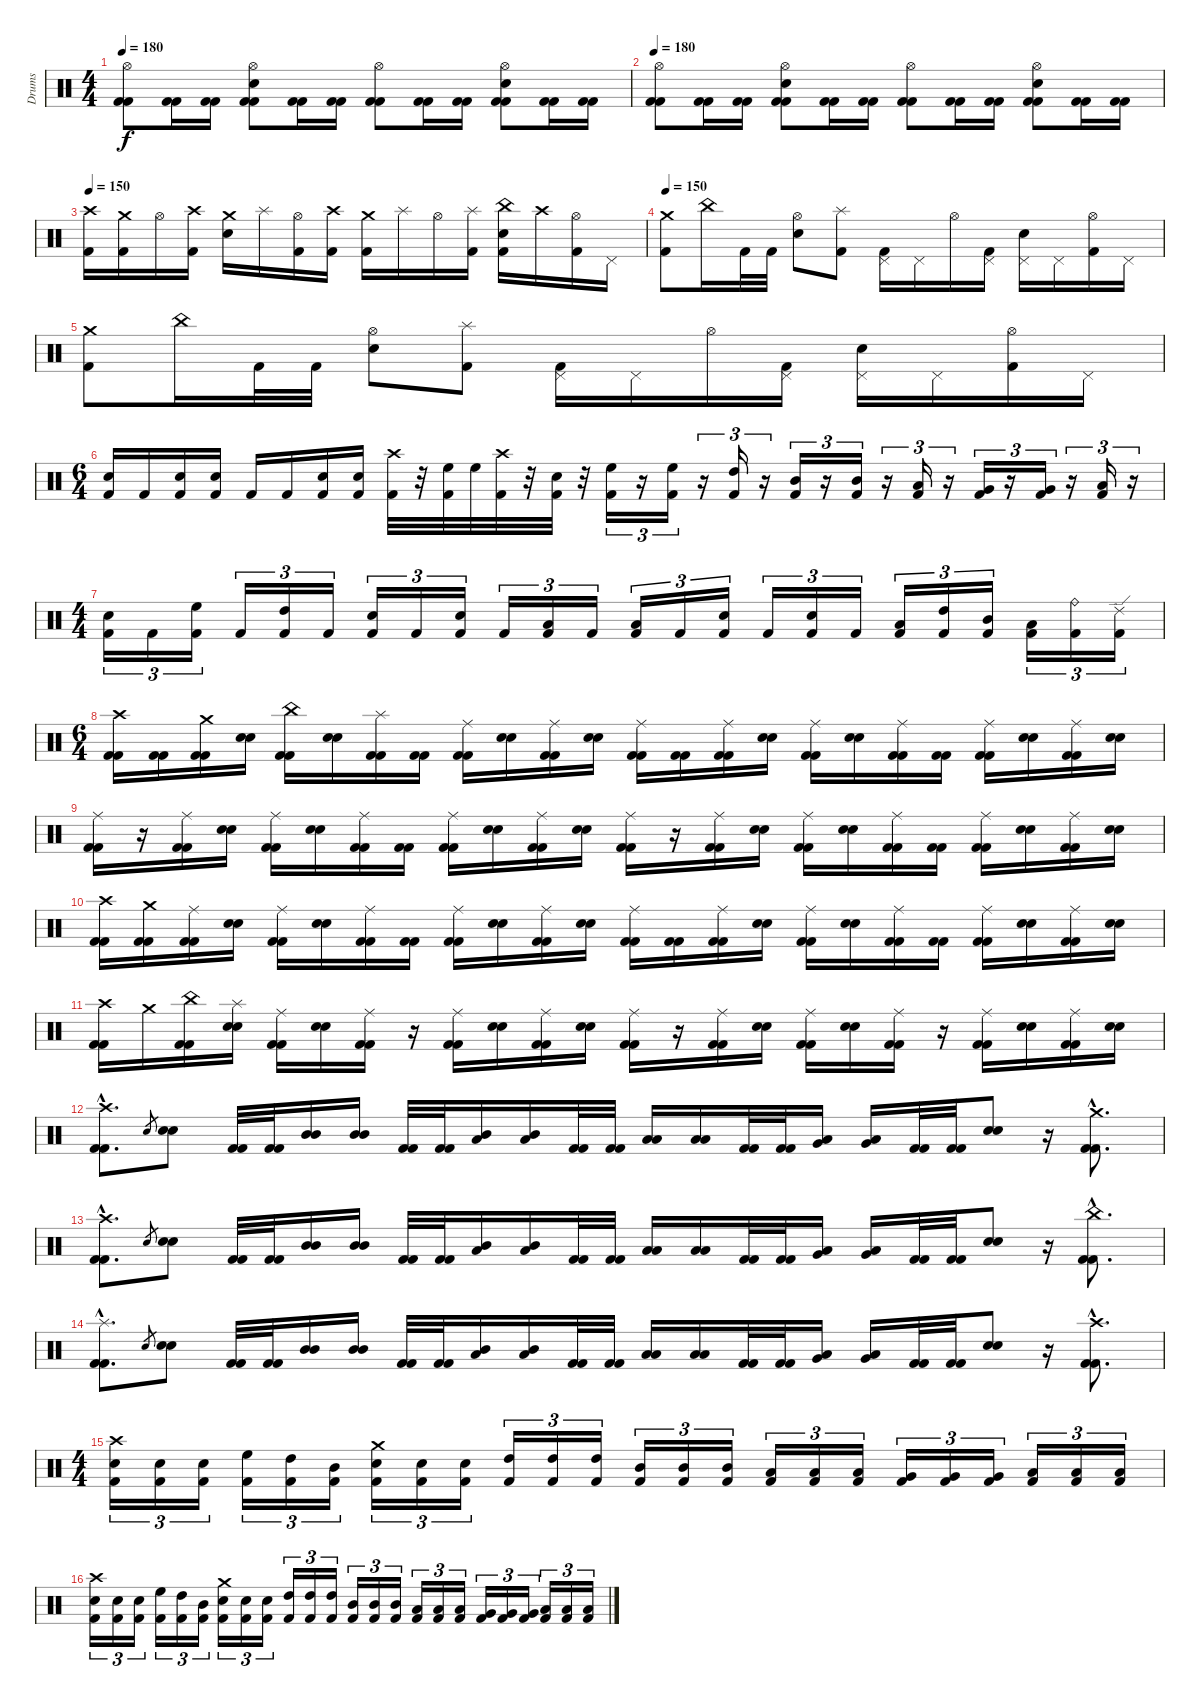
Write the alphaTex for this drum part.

\track ("Drums" "Drums") {instrument percussion}
\staff {score}
\articulation defaults
\ts (4 4)
\tempo 180
\clef neutral
\ks c
("Hi-Hat (open)" "Kick (hit) 2" "Kick (hit) 2").8{dy f} ("Kick (hit) 2" "Kick (hit) 2").16 ("Kick (hit) 2" "Kick (hit) 2").16 ("Electric Snare (hit)" "Hi-Hat (open)" "Kick (hit) 2" "Kick (hit) 2").8 ("Kick (hit) 2" "Kick (hit) 2").16 ("Kick (hit) 2" "Kick (hit) 2").16 ("Hi-Hat (open)" "Kick (hit) 2" "Kick (hit) 2").8 ("Kick (hit) 2" "Kick (hit) 2").16 ("Kick (hit) 2" "Kick (hit) 2").16 ("Electric Snare (hit)" "Hi-Hat (open)" "Kick (hit) 2" "Kick (hit) 2").8 ("Kick (hit) 2" "Kick (hit) 2").16 ("Kick (hit) 2" "Kick (hit) 2").16 |
\tempo 180
("Hi-Hat (open)" "Kick (hit) 2" "Kick (hit) 2").8 ("Kick (hit) 2" "Kick (hit) 2").16 ("Kick (hit) 2" "Kick (hit) 2").16 ("Electric Snare (hit)" "Hi-Hat (open)" "Kick (hit) 2" "Kick (hit) 2").8 ("Kick (hit) 2" "Kick (hit) 2").16 ("Kick (hit) 2" "Kick (hit) 2").16 ("Hi-Hat (open)" "Kick (hit) 2" "Kick (hit) 2").8 ("Kick (hit) 2" "Kick (hit) 2").16 ("Kick (hit) 2" "Kick (hit) 2").16 ("Electric Snare (hit)" "Hi-Hat (open)" "Kick (hit) 2" "Kick (hit) 2").8 ("Kick (hit) 2" "Kick (hit) 2").16 ("Kick (hit) 2" "Kick (hit) 2").16 |
\tempo 150
("Crash high (hit)" "Kick (hit) 2").16 ("Crash medium (hit)" "Kick (hit) 2").16 "Hi-Hat (open)".16 ("Crash high (hit)" "Kick (hit) 2").16 ("Crash medium (hit)" "Electric Snare (hit)").16 "Splash (hit)".16 ("Hi-Hat (open)" "Kick (hit) 2").16 ("Crash high (hit)" "Kick (hit) 2").16 ("Crash medium (hit)" "Kick (hit) 2").16 "Splash (hit)".16 "Hi-Hat (open)".16 ("Splash (hit)" "Kick (hit) 2").16 ("China (hit)" "Electric Snare (hit)" "Kick (hit) 2").16 "Crash high (hit)".16 ("Hi-Hat (open)" "Kick (hit) 2").16 "Pedal Hi-Hat (hit)".16 |
\tempo 150
("Crash medium (hit)" "Kick (hit) 2").8 "China (hit)".16 "Kick (hit) 2".32 "Kick (hit) 2".32 ("Hi-Hat (open)" "Electric Snare (hit)").8 ("Splash (hit)" "Kick (hit) 2").8 ("Pedal Hi-Hat (hit)" "Kick (hit) 2").16 "Pedal Hi-Hat (hit)".16 "Hi-Hat (open)".16 ("Pedal Hi-Hat (hit)" "Kick (hit) 2").16 ("Pedal Hi-Hat (hit)" "Electric Snare (hit)").16 "Pedal Hi-Hat (hit)".16 ("Hi-Hat (open)" "Kick (hit) 2").16 "Pedal Hi-Hat (hit)".16 |
("Crash medium (hit)" "Kick (hit) 2").8 "China (hit)".16 "Kick (hit) 2".32 "Kick (hit) 2".32 ("Hi-Hat (open)" "Electric Snare (hit)").8 ("Splash (hit)" "Kick (hit) 2").8 ("Pedal Hi-Hat (hit)" "Kick (hit) 2").16 "Pedal Hi-Hat (hit)".16 "Hi-Hat (open)".16 ("Pedal Hi-Hat (hit)" "Kick (hit) 2").16 ("Pedal Hi-Hat (hit)" "Electric Snare (hit)").16 "Pedal Hi-Hat (hit)".16 ("Hi-Hat (open)" "Kick (hit) 2").16 "Pedal Hi-Hat (hit)".16 |
\ts (6 4)
("Electric Snare (hit)" "Kick (hit) 2").16 "Kick (hit) 2".16 ("Electric Snare (hit)" "Kick (hit) 2").16 ("Electric Snare (hit)" "Kick (hit) 2").16 "Kick (hit) 2".16 "Kick (hit) 2".16 ("Electric Snare (hit)" "Kick (hit) 2").16 ("Electric Snare (hit)" "Kick (hit) 2").16 ("Crash high (hit)" "Kick (hit) 2").32 r.32 ("High Floor Tom (hit)" "Kick (hit) 2").32 "High Floor Tom (hit)".32 ("Crash high (hit)" "Kick (hit) 2").32 r.32 ("Electric Snare (hit)" "Kick (hit) 2").32 r.32 ("High Floor Tom (hit)" "Kick (hit) 2").16{tu (3 2)} r.16{tu (3 2)} ("High Floor Tom (hit)" "Kick (hit) 2").16{tu (3 2)} r.16{tu (3 2)} ("High Tom (hit)" "Kick (hit) 2").16{tu (3 2)} r.16{tu (3 2)} ("Mid Tom (hit)" "Kick (hit) 2").16{tu (3 2)} r.16{tu (3 2)} ("Mid Tom (hit)" "Kick (hit) 2").16{tu (3 2)} r.16{tu (3 2)} ("Low Tom (hit)" "Kick (hit) 2").16{tu (3 2)} r.16{tu (3 2)} ("Very Low Tom (hit)" "Kick (hit) 2").16{tu (3 2)} r.16{tu (3 2)} ("Very Low Tom (hit)" "Kick (hit) 2").16{tu (3 2)} r.16{tu (3 2)} ("Low Floor Tom (hit)" "Kick (hit) 2").16{tu (3 2)} r.16{tu (3 2)} |
\ts (4 4)
("Electric Snare (hit)" "Kick (hit) 2").16{tu (3 2)} "Kick (hit) 2".16{tu (3 2)} ("High Floor Tom (hit)" "Kick (hit) 2").16{tu (3 2)} "Kick (hit) 2".16{tu (3 2)} ("High Tom (hit)" "Kick (hit) 2").16{tu (3 2)} "Kick (hit) 2".16{tu (3 2)} ("Electric Snare (hit)" "Kick (hit) 2").16{tu (3 2)} "Kick (hit) 2".16{tu (3 2)} ("Electric Snare (hit)" "Kick (hit) 2").16{tu (3 2)} "Kick (hit) 2".16{tu (3 2)} ("Low Floor Tom (hit)" "Kick (hit) 2").16{tu (3 2)} "Kick (hit) 2".16{tu (3 2)} ("Low Floor Tom (hit)" "Kick (hit) 2").16{tu (3 2)} "Kick (hit) 2".16{tu (3 2)} ("Electric Snare (hit)" "Kick (hit) 2").16{tu (3 2)} "Kick (hit) 2".16{tu (3 2)} ("Electric Snare (hit)" "Kick (hit) 2").16{tu (3 2)} "Kick (hit) 2".16{tu (3 2)} ("Low Floor Tom (hit)" "Kick (hit) 2").16{tu (3 2)} ("High Tom (hit)" "Kick (hit) 2").16{tu (3 2)} ("Mid Tom (hit)" "Kick (hit) 2").16{tu (3 2)} ("Low Tom (hit)" "Kick (hit) 2").16{tu (3 2)} ("Ride (bell)" "Kick (hit) 2").16{tu (3 2)} ("Ride (edge) 2" "Kick (hit) 2").16{tu (3 2)} |
\ts (6 4)
("Crash high (hit)" "Kick (hit) 2" "Kick (hit) 2").16 ("Kick (hit) 2" "Kick (hit) 2").16 ("Crash medium (hit)" "Kick (hit) 2" "Kick (hit) 2").16 ("Snare (hit) 2" "Snare (hit) 2").16 ("China (hit)" "Kick (hit) 2" "Kick (hit) 2").16 ("Snare (hit) 2" "Snare (hit) 2").16 ("Splash (hit)" "Kick (hit) 2" "Kick (hit) 2").16 ("Kick (hit) 2" "Kick (hit) 2").16 ("Ride (middle)" "Kick (hit) 2" "Kick (hit) 2").16 ("Snare (hit) 2" "Snare (hit) 2").16 ("Ride (middle)" "Kick (hit) 2" "Kick (hit) 2").16 ("Snare (hit) 2" "Snare (hit) 2").16 ("Ride (middle)" "Kick (hit) 2" "Kick (hit) 2").16 ("Kick (hit) 2" "Kick (hit) 2").16 ("Ride (middle)" "Kick (hit) 2" "Kick (hit) 2").16 ("Snare (hit) 2" "Snare (hit) 2").16 ("Ride (middle)" "Kick (hit) 2" "Kick (hit) 2").16 ("Snare (hit) 2" "Snare (hit) 2").16 ("Ride (middle)" "Kick (hit) 2" "Kick (hit) 2").16 ("Kick (hit) 2" "Kick (hit) 2").16 ("Ride (middle)" "Kick (hit) 2" "Kick (hit) 2").16 ("Snare (hit) 2" "Snare (hit) 2").16 ("Ride (middle)" "Kick (hit) 2" "Kick (hit) 2").16 ("Snare (hit) 2" "Snare (hit) 2").16 |
("Ride (middle)" "Kick (hit) 2" "Kick (hit) 2").16 r.16 ("Ride (middle)" "Kick (hit) 2" "Kick (hit) 2").16 ("Snare (hit) 2" "Snare (hit) 2").16 ("Ride (middle)" "Kick (hit) 2" "Kick (hit) 2").16 ("Snare (hit) 2" "Snare (hit) 2").16 ("Ride (middle)" "Kick (hit) 2" "Kick (hit) 2").16 ("Kick (hit) 2" "Kick (hit) 2").16 ("Ride (middle)" "Kick (hit) 2" "Kick (hit) 2").16 ("Snare (hit) 2" "Snare (hit) 2").16 ("Ride (middle)" "Kick (hit) 2" "Kick (hit) 2").16 ("Snare (hit) 2" "Snare (hit) 2").16 ("Ride (middle)" "Kick (hit) 2" "Kick (hit) 2").16 r.16 ("Ride (middle)" "Kick (hit) 2" "Kick (hit) 2").16 ("Snare (hit) 2" "Snare (hit) 2").16 ("Ride (middle)" "Kick (hit) 2" "Kick (hit) 2").16 ("Snare (hit) 2" "Snare (hit) 2").16 ("Ride (middle)" "Kick (hit) 2" "Kick (hit) 2").16 ("Kick (hit) 2" "Kick (hit) 2").16 ("Ride (middle)" "Kick (hit) 2" "Kick (hit) 2").16 ("Snare (hit) 2" "Snare (hit) 2").16 ("Ride (middle)" "Kick (hit) 2" "Kick (hit) 2").16 ("Snare (hit) 2" "Snare (hit) 2").16 |
("Crash high (hit)" "Kick (hit) 2" "Kick (hit) 2").16 ("Crash medium (hit)" "Kick (hit) 2" "Kick (hit) 2").16 ("Ride (middle)" "Kick (hit) 2" "Kick (hit) 2").16 ("Snare (hit) 2" "Snare (hit) 2").16 ("Ride (middle)" "Kick (hit) 2" "Kick (hit) 2").16 ("Snare (hit) 2" "Snare (hit) 2").16 ("Ride (middle)" "Kick (hit) 2" "Kick (hit) 2").16 ("Kick (hit) 2" "Kick (hit) 2").16 ("Ride (middle)" "Kick (hit) 2" "Kick (hit) 2").16 ("Snare (hit) 2" "Snare (hit) 2").16 ("Ride (middle)" "Kick (hit) 2" "Kick (hit) 2").16 ("Snare (hit) 2" "Snare (hit) 2").16 ("Ride (middle)" "Kick (hit) 2" "Kick (hit) 2").16 ("Kick (hit) 2" "Kick (hit) 2").16 ("Ride (middle)" "Kick (hit) 2" "Kick (hit) 2").16 ("Snare (hit) 2" "Snare (hit) 2").16 ("Ride (middle)" "Kick (hit) 2" "Kick (hit) 2").16 ("Snare (hit) 2" "Snare (hit) 2").16 ("Ride (middle)" "Kick (hit) 2" "Kick (hit) 2").16 ("Kick (hit) 2" "Kick (hit) 2").16 ("Ride (middle)" "Kick (hit) 2" "Kick (hit) 2").16 ("Snare (hit) 2" "Snare (hit) 2").16 ("Ride (middle)" "Kick (hit) 2" "Kick (hit) 2").16 ("Snare (hit) 2" "Snare (hit) 2").16 |
("Crash high (hit)" "Kick (hit) 2" "Kick (hit) 2").16 "Crash medium (hit)".16 ("China (hit)" "Kick (hit) 2" "Kick (hit) 2").16 ("Splash (hit)" "Snare (hit) 2" "Snare (hit) 2").16 ("Ride (middle)" "Kick (hit) 2" "Kick (hit) 2").16 ("Snare (hit) 2" "Snare (hit) 2").16 ("Ride (middle)" "Kick (hit) 2" "Kick (hit) 2").16 r.16 ("Ride (middle)" "Kick (hit) 2" "Kick (hit) 2").16 ("Snare (hit) 2" "Snare (hit) 2").16 ("Ride (middle)" "Kick (hit) 2" "Kick (hit) 2").16 ("Snare (hit) 2" "Snare (hit) 2").16 ("Ride (middle)" "Kick (hit) 2" "Kick (hit) 2").16 r.16 ("Ride (middle)" "Kick (hit) 2" "Kick (hit) 2").16 ("Snare (hit) 2" "Snare (hit) 2").16 ("Ride (middle)" "Kick (hit) 2" "Kick (hit) 2").16 ("Snare (hit) 2" "Snare (hit) 2").16 ("Ride (middle)" "Kick (hit) 2" "Kick (hit) 2").16 r.16 ("Ride (middle)" "Kick (hit) 2" "Kick (hit) 2").16 ("Snare (hit) 2" "Snare (hit) 2").16 ("Ride (middle)" "Kick (hit) 2" "Kick (hit) 2").16 ("Snare (hit) 2" "Snare (hit) 2").16 |
("Crash high (hit)"{hac} "Kick (hit) 2"{hac} "Kick (hit) 2"{hac}).8{d} "Snare (hit) 2".8{gr} ("Snare (hit) 2" "Snare (hit) 2").8 ("Kick (hit) 2" "Kick (hit) 2").32 ("Kick (hit) 2" "Kick (hit) 2").32 ("Mid Tom (hit)" "Mid Tom (hit)").16 ("Mid Tom (hit)" "Mid Tom (hit)").16 ("Kick (hit) 2" "Kick (hit) 2").32 ("Kick (hit) 2" "Kick (hit) 2").32 ("Low Tom (hit)" "Mid Tom (hit)").16 ("Mid Tom (hit)" "Low Tom (hit)").16 ("Kick (hit) 2" "Kick (hit) 2").32 ("Kick (hit) 2" "Kick (hit) 2").32 ("Low Tom (hit)" "Low Tom (hit)").16 ("Low Tom (hit)" "Low Tom (hit)").16 ("Kick (hit) 2" "Kick (hit) 2").32 ("Kick (hit) 2" "Kick (hit) 2").32 ("Very Low Tom (hit)" "Low Tom (hit)").16 ("Very Low Tom (hit)" "Low Tom (hit)").16 ("Kick (hit) 2" "Kick (hit) 2").32 ("Kick (hit) 2" "Kick (hit) 2").32 ("Snare (hit) 2" "Snare (hit) 2").8 r.16 ("Crash medium (hit)"{hac} "Kick (hit) 2"{hac} "Kick (hit) 2"{hac}).8{d} |
("Crash high (hit)"{hac} "Kick (hit) 2"{hac} "Kick (hit) 2"{hac}).8{d} "Snare (hit) 2".8{gr} ("Snare (hit) 2" "Snare (hit) 2").8 ("Kick (hit) 2" "Kick (hit) 2").32 ("Kick (hit) 2" "Kick (hit) 2").32 ("Mid Tom (hit)" "Mid Tom (hit)").16 ("Mid Tom (hit)" "Mid Tom (hit)").16 ("Kick (hit) 2" "Kick (hit) 2").32 ("Kick (hit) 2" "Kick (hit) 2").32 ("Low Tom (hit)" "Mid Tom (hit)").16 ("Mid Tom (hit)" "Low Tom (hit)").16 ("Kick (hit) 2" "Kick (hit) 2").32 ("Kick (hit) 2" "Kick (hit) 2").32 ("Low Tom (hit)" "Low Tom (hit)").16 ("Low Tom (hit)" "Low Tom (hit)").16 ("Kick (hit) 2" "Kick (hit) 2").32 ("Kick (hit) 2" "Kick (hit) 2").32 ("Very Low Tom (hit)" "Low Tom (hit)").16 ("Very Low Tom (hit)" "Low Tom (hit)").16 ("Kick (hit) 2" "Kick (hit) 2").32 ("Kick (hit) 2" "Kick (hit) 2").32 ("Snare (hit) 2" "Snare (hit) 2").8 r.16 ("China (hit)"{hac} "Kick (hit) 2"{hac} "Kick (hit) 2"{hac}).8{d} |
("Splash (hit)"{hac} "Kick (hit) 2"{hac} "Kick (hit) 2"{hac}).8{d} "Snare (hit) 2".8{gr} ("Snare (hit) 2" "Snare (hit) 2").8 ("Kick (hit) 2" "Kick (hit) 2").32 ("Kick (hit) 2" "Kick (hit) 2").32 ("Mid Tom (hit)" "Mid Tom (hit)").16 ("Mid Tom (hit)" "Mid Tom (hit)").16 ("Kick (hit) 2" "Kick (hit) 2").32 ("Kick (hit) 2" "Kick (hit) 2").32 ("Low Tom (hit)" "Mid Tom (hit)").16 ("Mid Tom (hit)" "Low Tom (hit)").16 ("Kick (hit) 2" "Kick (hit) 2").32 ("Kick (hit) 2" "Kick (hit) 2").32 ("Low Tom (hit)" "Low Tom (hit)").16 ("Low Tom (hit)" "Low Tom (hit)").16 ("Kick (hit) 2" "Kick (hit) 2").32 ("Kick (hit) 2" "Kick (hit) 2").32 ("Very Low Tom (hit)" "Low Tom (hit)").16 ("Very Low Tom (hit)" "Low Tom (hit)").16 ("Kick (hit) 2" "Kick (hit) 2").32 ("Kick (hit) 2" "Kick (hit) 2").32 ("Snare (hit) 2" "Snare (hit) 2").8 r.16 ("Crash high (hit)"{hac} "Kick (hit) 2"{hac} "Kick (hit) 2"{hac}).8{d} |
\ts (4 4)
("Crash high (hit)" "Electric Snare (hit)" "Kick (hit) 2").16{tu (3 2)} ("Electric Snare (hit)" "Kick (hit) 2").16{tu (3 2)} ("Electric Snare (hit)" "Kick (hit) 2").16{tu (3 2)} ("High Floor Tom (hit)" "Kick (hit) 2").16{tu (3 2)} ("High Tom (hit)" "Kick (hit) 2").16{tu (3 2)} ("Mid Tom (hit)" "Kick (hit) 2").16{tu (3 2)} ("Crash medium (hit)" "Electric Snare (hit)" "Kick (hit) 2").16{tu (3 2)} ("Electric Snare (hit)" "Kick (hit) 2").16{tu (3 2)} ("Electric Snare (hit)" "Kick (hit) 2").16{tu (3 2)} ("High Tom (hit)" "Kick (hit) 2").16{tu (3 2)} ("High Tom (hit)" "Kick (hit) 2").16{tu (3 2)} ("High Tom (hit)" "Kick (hit) 2").16{tu (3 2)} ("Mid Tom (hit)" "Kick (hit) 2").16{tu (3 2)} ("Mid Tom (hit)" "Kick (hit) 2").16{tu (3 2)} ("Mid Tom (hit)" "Kick (hit) 2").16{tu (3 2)} ("Low Tom (hit)" "Kick (hit) 2").16{tu (3 2)} ("Low Tom (hit)" "Kick (hit) 2").16{tu (3 2)} ("Low Tom (hit)" "Kick (hit) 2").16{tu (3 2)} ("Very Low Tom (hit)" "Kick (hit) 2").16{tu (3 2)} ("Very Low Tom (hit)" "Kick (hit) 2").16{tu (3 2)} ("Very Low Tom (hit)" "Kick (hit) 2").16{tu (3 2)} ("Low Floor Tom (hit)" "Kick (hit) 2").16{tu (3 2)} ("Low Floor Tom (hit)" "Kick (hit) 2").16{tu (3 2)} ("Low Floor Tom (hit)" "Kick (hit) 2").16{tu (3 2)} |
("Crash high (hit)" "Electric Snare (hit)" "Kick (hit) 2").16{tu (3 2)} ("Electric Snare (hit)" "Kick (hit) 2").16{tu (3 2)} ("Electric Snare (hit)" "Kick (hit) 2").16{tu (3 2)} ("High Floor Tom (hit)" "Kick (hit) 2").16{tu (3 2)} ("High Tom (hit)" "Kick (hit) 2").16{tu (3 2)} ("Mid Tom (hit)" "Kick (hit) 2").16{tu (3 2)} ("Crash medium (hit)" "Electric Snare (hit)" "Kick (hit) 2").16{tu (3 2)} ("Electric Snare (hit)" "Kick (hit) 2").16{tu (3 2)} ("Electric Snare (hit)" "Kick (hit) 2").16{tu (3 2)} ("High Tom (hit)" "Kick (hit) 2").16{tu (3 2)} ("High Tom (hit)" "Kick (hit) 2").16{tu (3 2)} ("High Tom (hit)" "Kick (hit) 2").16{tu (3 2)} ("Mid Tom (hit)" "Kick (hit) 2").16{tu (3 2)} ("Mid Tom (hit)" "Kick (hit) 2").16{tu (3 2)} ("Mid Tom (hit)" "Kick (hit) 2").16{tu (3 2)} ("Low Tom (hit)" "Kick (hit) 2").16{tu (3 2)} ("Low Tom (hit)" "Kick (hit) 2").16{tu (3 2)} ("Low Tom (hit)" "Kick (hit) 2").16{tu (3 2)} ("Very Low Tom (hit)" "Kick (hit) 2").16{tu (3 2)} ("Very Low Tom (hit)" "Kick (hit) 2").16{tu (3 2)} ("Very Low Tom (hit)" "Kick (hit) 2").16{tu (3 2)} ("Low Floor Tom (hit)" "Kick (hit) 2").16{tu (3 2)} ("Low Floor Tom (hit)" "Kick (hit) 2").16{tu (3 2)} ("Low Floor Tom (hit)" "Kick (hit) 2").16{tu (3 2)}
